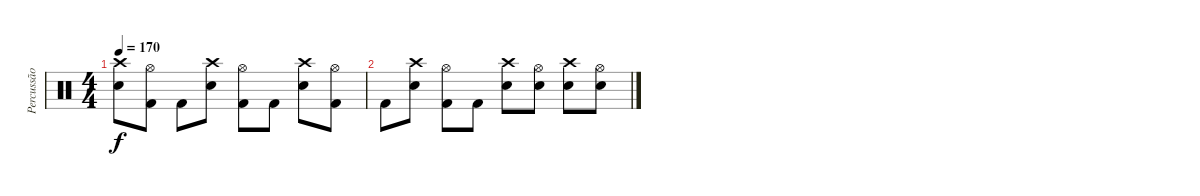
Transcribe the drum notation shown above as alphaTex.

\track ("Percussão" "Percussão") {instrument percussion}
\staff {score}
\articulation defaults
\ts (4 4)
\tempo 170
\clef neutral
\ks c
("Crash high (hit)" "Snare (hit) 2").8{dy f} ("Hi-Hat (open)" "Kick (hit) 2").8 "Kick (hit) 2".8 ("Crash high (hit)" "Snare (hit) 2").8 ("Hi-Hat (open)" "Kick (hit) 2").8 "Kick (hit) 2".8 ("Crash high (hit)" "Snare (hit) 2").8 ("Hi-Hat (open)" "Kick (hit) 2").8 |
"Kick (hit) 2".8 ("Crash high (hit)" "Snare (hit) 2").8 ("Hi-Hat (open)" "Kick (hit) 2").8 "Kick (hit) 2".8 ("Crash high (hit)" "Snare (hit) 2").8 ("Hi-Hat (open)" "Snare (hit) 2").8 ("Crash high (hit)" "Snare (hit) 2").8 ("Hi-Hat (open)" "Snare (hit) 2").8
